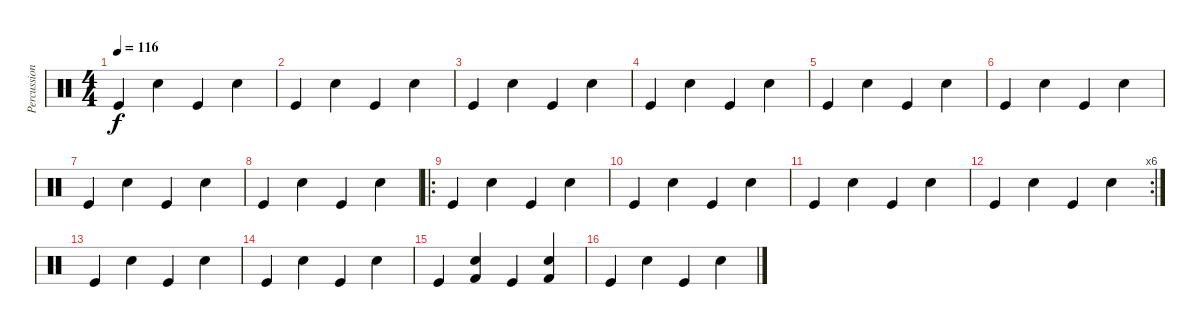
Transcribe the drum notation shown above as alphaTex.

\track ("Percussions" "Percussion") {instrument percussion}
\staff {score}
\articulation defaults
\ts (4 4)
\tempo 116
\clef neutral
\ks c "Kick (hit)".4{dy f} "Snare (hit) 2".4 "Kick (hit)".4 "Snare (hit) 2".4
|
"Kick (hit)".4 "Snare (hit) 2".4 "Kick (hit)".4 "Snare (hit) 2".4 |
"Kick (hit)".4 "Snare (hit) 2".4 "Kick (hit)".4 "Snare (hit) 2".4 |
"Kick (hit)".4 "Snare (hit) 2".4 "Kick (hit)".4 "Snare (hit) 2".4 |
"Kick (hit)".4 "Snare (hit) 2".4 "Kick (hit)".4 "Snare (hit) 2".4 |
"Kick (hit)".4 "Snare (hit) 2".4 "Kick (hit)".4 "Snare (hit) 2".4 |
"Kick (hit)".4 "Snare (hit) 2".4 "Kick (hit)".4 "Snare (hit) 2".4 |
"Kick (hit)".4 "Snare (hit) 2".4 "Kick (hit)".4 "Snare (hit) 2".4 |
\ro "Kick (hit)".4 "Snare (hit) 2".4 "Kick (hit)".4 "Snare (hit) 2".4
|
"Kick (hit)".4 "Snare (hit) 2".4 "Kick (hit)".4 "Snare (hit) 2".4 |
"Kick (hit)".4 "Snare (hit) 2".4 "Kick (hit)".4 "Snare (hit) 2".4 |
\rc 6 "Kick (hit)".4 "Snare (hit) 2".4 "Kick (hit)".4 "Snare (hit) 2".4
|
"Kick (hit)".4 "Snare (hit) 2".4 "Kick (hit)".4 "Snare (hit) 2".4 |
"Kick (hit)".4 "Snare (hit) 2".4 "Kick (hit)".4 "Snare (hit) 2".4 |
"Kick (hit)".4 ("Snare (hit) 2" "Kick (hit) 2").4 "Kick (hit)".4 ("Snare (hit) 2" "Kick (hit) 2").4 |
"Kick (hit)".4 "Snare (hit) 2".4 "Kick (hit)".4 "Snare (hit) 2".4
